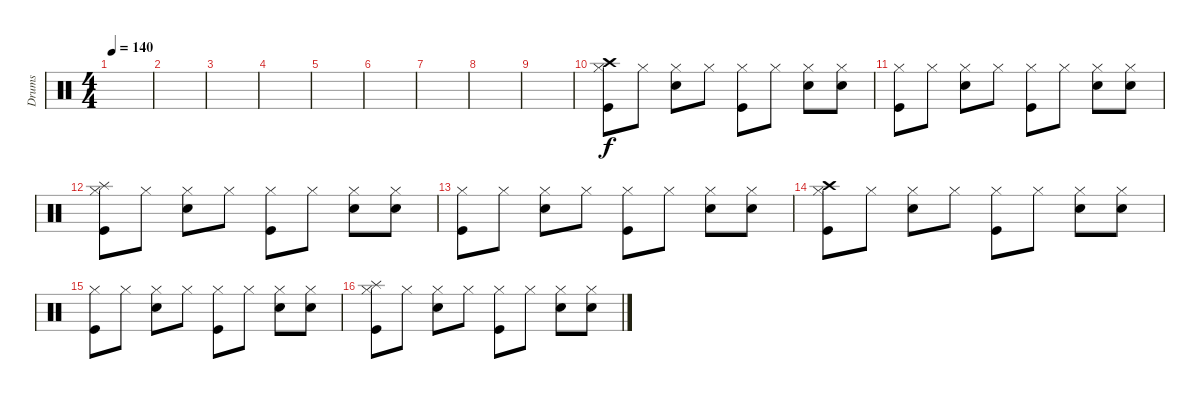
\track ("Drums" "Drums") {instrument percussion}
\staff {score}
\articulation defaults
\ts (4 4)
\tempo 140
\clef neutral
\ks c
|
|
|
|
|
|
|
|
|
("Crash high (hit)" "Hi-Hat (closed)" "Kick (hit)").8 "Hi-Hat (closed)".8 ("Hi-Hat (closed)" "Electric Snare (hit)").8 "Hi-Hat (closed)".8 ("Hi-Hat (closed)" "Kick (hit)").8 "Hi-Hat (closed)".8 ("Hi-Hat (closed)" "Electric Snare (hit)").8 ("Hi-Hat (closed)" "Electric Snare (hit)").8 |
("Hi-Hat (closed)" "Kick (hit)").8 "Hi-Hat (closed)".8 ("Hi-Hat (closed)" "Electric Snare (hit)").8 "Hi-Hat (closed)".8 ("Hi-Hat (closed)" "Kick (hit)").8 "Hi-Hat (closed)".8 ("Hi-Hat (closed)" "Electric Snare (hit)").8 ("Hi-Hat (closed)" "Electric Snare (hit)").8 |
("Splash (hit)" "Hi-Hat (closed)" "Kick (hit)").8 "Hi-Hat (closed)".8 ("Hi-Hat (closed)" "Electric Snare (hit)").8 "Hi-Hat (closed)".8 ("Hi-Hat (closed)" "Kick (hit)").8 "Hi-Hat (closed)".8 ("Hi-Hat (closed)" "Electric Snare (hit)").8 ("Hi-Hat (closed)" "Electric Snare (hit)").8 |
("Hi-Hat (closed)" "Kick (hit)").8 "Hi-Hat (closed)".8 ("Hi-Hat (closed)" "Electric Snare (hit)").8 "Hi-Hat (closed)".8 ("Hi-Hat (closed)" "Kick (hit)").8 "Hi-Hat (closed)".8 ("Hi-Hat (closed)" "Electric Snare (hit)").8 ("Hi-Hat (closed)" "Electric Snare (hit)").8 |
("Crash high (hit)" "Hi-Hat (closed)" "Kick (hit)").8 "Hi-Hat (closed)".8 ("Hi-Hat (closed)" "Electric Snare (hit)").8 "Hi-Hat (closed)".8 ("Hi-Hat (closed)" "Kick (hit)").8 "Hi-Hat (closed)".8 ("Hi-Hat (closed)" "Electric Snare (hit)").8 ("Hi-Hat (closed)" "Electric Snare (hit)").8 |
("Hi-Hat (closed)" "Kick (hit)").8 "Hi-Hat (closed)".8 ("Hi-Hat (closed)" "Electric Snare (hit)").8 "Hi-Hat (closed)".8 ("Hi-Hat (closed)" "Kick (hit)").8 "Hi-Hat (closed)".8 ("Hi-Hat (closed)" "Electric Snare (hit)").8 ("Hi-Hat (closed)" "Electric Snare (hit)").8 |
("Splash (hit)" "Hi-Hat (closed)" "Kick (hit)").8 "Hi-Hat (closed)".8 ("Hi-Hat (closed)" "Electric Snare (hit)").8 "Hi-Hat (closed)".8 ("Hi-Hat (closed)" "Kick (hit)").8 "Hi-Hat (closed)".8 ("Hi-Hat (closed)" "Electric Snare (hit)").8 ("Hi-Hat (closed)" "Electric Snare (hit)").8
